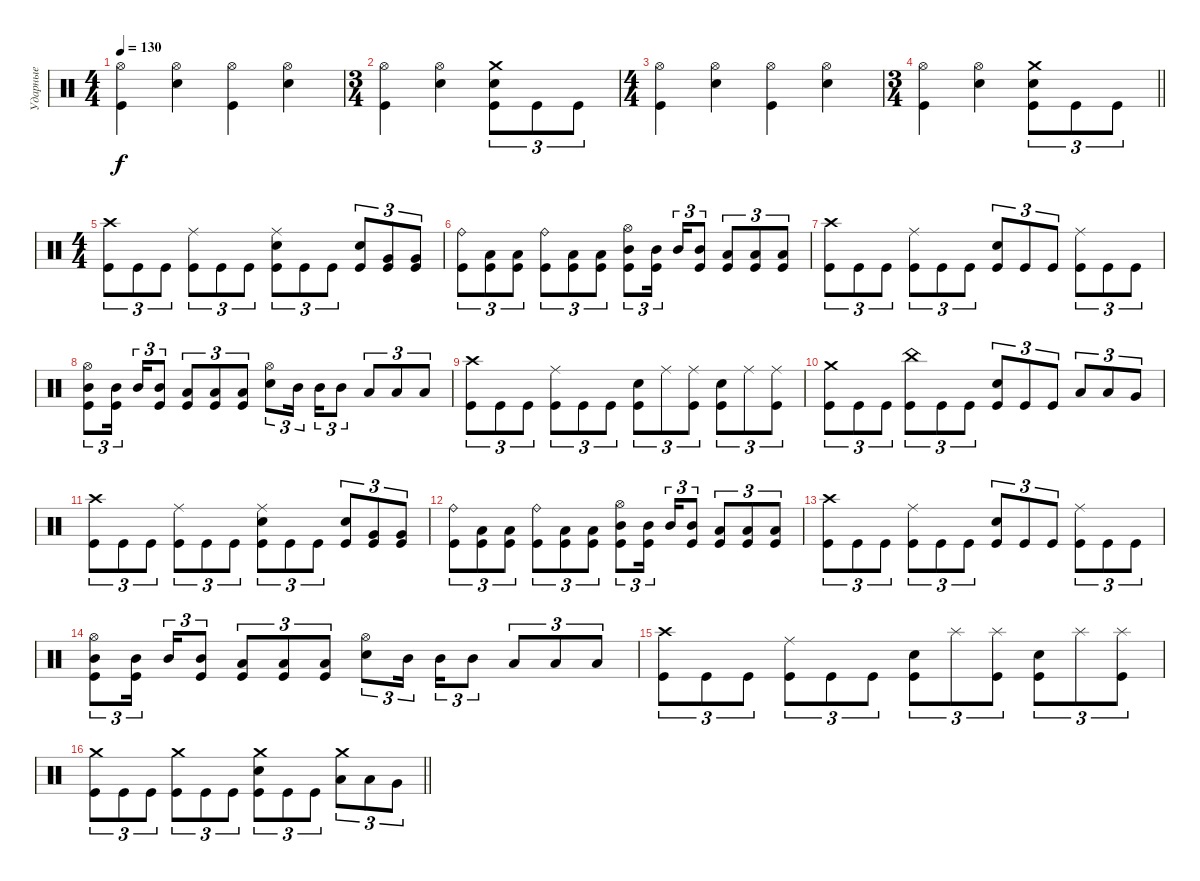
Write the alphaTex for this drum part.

\track ("Ударные" "Ударные") {instrument percussion}
\staff {score}
\articulation defaults
\ts (4 4)
\tempo 130
\clef neutral
\ks c
("Hi-Hat (open)" "Kick (hit)").4{dy f} ("Hi-Hat (open)" "Electric Snare (hit)").4 ("Hi-Hat (open)" "Kick (hit)").4 ("Hi-Hat (open)" "Electric Snare (hit)").4 |
\ts (3 4)
("Hi-Hat (open)" "Kick (hit)").4 ("Hi-Hat (open)" "Electric Snare (hit)").4 ("Crash medium (hit)" "Kick (hit)" "Electric Snare (hit)").8{tu (3 2)} "Kick (hit)".8{tu (3 2)} "Kick (hit)".8{tu (3 2)} |
\ts (4 4)
("Hi-Hat (open)" "Kick (hit)").4 ("Hi-Hat (open)" "Electric Snare (hit)").4 ("Hi-Hat (open)" "Kick (hit)").4 ("Hi-Hat (open)" "Electric Snare (hit)").4 |
\ts (3 4)
\barLineRight lightlight
("Hi-Hat (open)" "Kick (hit)").4 ("Hi-Hat (open)" "Electric Snare (hit)").4 ("Crash medium (hit)" "Kick (hit)" "Electric Snare (hit)").8{tu (3 2)} "Kick (hit)".8{tu (3 2)} "Kick (hit)".8{tu (3 2)} |
\ts (4 4)
("Crash high (hit)" "Kick (hit)").8{tu (3 2)} "Kick (hit)".8{tu (3 2)} "Kick (hit)".8{tu (3 2)} ("Ride (middle)" "Kick (hit)").8{tu (3 2)} "Kick (hit)".8{tu (3 2)} "Kick (hit)".8{tu (3 2)} ("Ride (middle)" "Electric Snare (hit)" "Kick (hit)").8{tu (3 2)} "Kick (hit)".8{tu (3 2)} "Kick (hit)".8{tu (3 2)} ("Electric Snare (hit)" "Kick (hit)").8{tu (3 2)} ("Very Low Tom (hit)" "Kick (hit)").8{tu (3 2)} ("Very Low Tom (hit)" "Kick (hit)").8{tu (3 2)} |
("Ride (bell)" "Kick (hit)").8{tu (3 2)} ("Low Tom (hit)" "Kick (hit)").8{tu (3 2)} ("Low Tom (hit)" "Kick (hit)").8{tu (3 2)} ("Ride (bell)" "Kick (hit)").8{tu (3 2)} ("Low Floor Tom (hit)" "Kick (hit)").8{tu (3 2)} ("Low Floor Tom (hit)" "Kick (hit)").8{tu (3 2)} ("Hi-Hat (open)" "Mid Tom (hit)" "Kick (hit)").8{tu (3 2)} ("Mid Tom (hit)" "Kick (hit)").16{tu (3 2) beam splitsecondary} "Mid Tom (hit)".16{tu (3 2)} ("Mid Tom (hit)" "Kick (hit)").8{tu (3 2)} ("Low Tom (hit)" "Kick (hit)").8{tu (3 2)} ("Low Tom (hit)" "Kick (hit)").8{tu (3 2)} ("Low Tom (hit)" "Kick (hit)").8{tu (3 2)} |
("Crash high (hit)" "Kick (hit)").8{tu (3 2)} "Kick (hit)".8{tu (3 2)} "Kick (hit)".8{tu (3 2)} ("Ride (middle)" "Kick (hit)").8{tu (3 2)} "Kick (hit)".8{tu (3 2)} "Kick (hit)".8{tu (3 2)} ("Electric Snare (hit)" "Kick (hit)").8{tu (3 2)} "Kick (hit)".8{tu (3 2)} "Kick (hit)".8{tu (3 2)} ("Ride (middle)" "Kick (hit)").8{tu (3 2)} "Kick (hit)".8{tu (3 2)} "Kick (hit)".8{tu (3 2)} |
("Hi-Hat (open)" "Mid Tom (hit)" "Kick (hit)").8{tu (3 2)} ("Mid Tom (hit)" "Kick (hit)").16{tu (3 2) beam splitsecondary} "Mid Tom (hit)".16{tu (3 2)} ("Mid Tom (hit)" "Kick (hit)").8{tu (3 2)} ("Low Tom (hit)" "Kick (hit)").8{tu (3 2)} ("Low Tom (hit)" "Kick (hit)").8{tu (3 2)} ("Low Tom (hit)" "Kick (hit)").8{tu (3 2)} ("Hi-Hat (open)" "Electric Snare (hit)").8{tu (3 2)} "Mid Tom (hit)".16{tu (3 2) beam splitsecondary} "Mid Tom (hit)".16{tu (3 2)} "Mid Tom (hit)".8{tu (3 2)} "Low Tom (hit)".8{tu (3 2)} "Low Tom (hit)".8{tu (3 2)} "Low Tom (hit)".8{tu (3 2)} |
("Crash high (hit)" "Kick (hit)").8{tu (3 2)} "Kick (hit)".8{tu (3 2)} "Kick (hit)".8{tu (3 2)} ("Ride (middle)" "Kick (hit)").8{tu (3 2)} "Kick (hit)".8{tu (3 2)} "Kick (hit)".8{tu (3 2)} ("Electric Snare (hit)" "Kick (hit)").8{tu (3 2)} "Ride (middle)".8{tu (3 2)} ("Ride (middle)" "Kick (hit)").8{tu (3 2)} ("Electric Snare (hit)" "Kick (hit)").8{tu (3 2)} "Ride (middle)".8{tu (3 2)} ("Ride (middle)" "Kick (hit)").8{tu (3 2)} |
("Crash medium (hit)" "Kick (hit)").8{tu (3 2)} "Kick (hit)".8{tu (3 2)} "Kick (hit)".8{tu (3 2)} ("China (hit)" "Kick (hit)").8{tu (3 2)} "Kick (hit)".8{tu (3 2)} "Kick (hit)".8{tu (3 2)} ("Electric Snare (hit)" "Kick (hit)").8{tu (3 2)} "Kick (hit)".8{tu (3 2)} "Kick (hit)".8{tu (3 2)} "Low Tom (hit)".8{tu (3 2)} "Low Tom (hit)".8{tu (3 2)} "Very Low Tom (hit)".8{tu (3 2)} |
("Crash high (hit)" "Kick (hit)").8{tu (3 2)} "Kick (hit)".8{tu (3 2)} "Kick (hit)".8{tu (3 2)} ("Ride (middle)" "Kick (hit)").8{tu (3 2)} "Kick (hit)".8{tu (3 2)} "Kick (hit)".8{tu (3 2)} ("Ride (middle)" "Electric Snare (hit)" "Kick (hit)").8{tu (3 2)} "Kick (hit)".8{tu (3 2)} "Kick (hit)".8{tu (3 2)} ("Electric Snare (hit)" "Kick (hit)").8{tu (3 2)} ("Very Low Tom (hit)" "Kick (hit)").8{tu (3 2)} ("Very Low Tom (hit)" "Kick (hit)").8{tu (3 2)} |
("Ride (bell)" "Kick (hit)").8{tu (3 2)} ("Low Tom (hit)" "Kick (hit)").8{tu (3 2)} ("Low Tom (hit)" "Kick (hit)").8{tu (3 2)} ("Ride (bell)" "Kick (hit)").8{tu (3 2)} ("Low Floor Tom (hit)" "Kick (hit)").8{tu (3 2)} ("Low Floor Tom (hit)" "Kick (hit)").8{tu (3 2)} ("Hi-Hat (open)" "Mid Tom (hit)" "Kick (hit)").8{tu (3 2)} ("Mid Tom (hit)" "Kick (hit)").16{tu (3 2) beam splitsecondary} "Mid Tom (hit)".16{tu (3 2)} ("Mid Tom (hit)" "Kick (hit)").8{tu (3 2)} ("Low Tom (hit)" "Kick (hit)").8{tu (3 2)} ("Low Tom (hit)" "Kick (hit)").8{tu (3 2)} ("Low Tom (hit)" "Kick (hit)").8{tu (3 2)} |
("Crash high (hit)" "Kick (hit)").8{tu (3 2)} "Kick (hit)".8{tu (3 2)} "Kick (hit)".8{tu (3 2)} ("Ride (middle)" "Kick (hit)").8{tu (3 2)} "Kick (hit)".8{tu (3 2)} "Kick (hit)".8{tu (3 2)} ("Electric Snare (hit)" "Kick (hit)").8{tu (3 2)} "Kick (hit)".8{tu (3 2)} "Kick (hit)".8{tu (3 2)} ("Ride (middle)" "Kick (hit)").8{tu (3 2)} "Kick (hit)".8{tu (3 2)} "Kick (hit)".8{tu (3 2)} |
("Hi-Hat (open)" "Mid Tom (hit)" "Kick (hit)").8{tu (3 2)} ("Mid Tom (hit)" "Kick (hit)").16{tu (3 2) beam splitsecondary} "Mid Tom (hit)".16{tu (3 2)} ("Mid Tom (hit)" "Kick (hit)").8{tu (3 2)} ("Low Tom (hit)" "Kick (hit)").8{tu (3 2)} ("Low Tom (hit)" "Kick (hit)").8{tu (3 2)} ("Low Tom (hit)" "Kick (hit)").8{tu (3 2)} ("Hi-Hat (open)" "Electric Snare (hit)").8{tu (3 2)} "Mid Tom (hit)".16{tu (3 2) beam splitsecondary} "Mid Tom (hit)".16{tu (3 2)} "Mid Tom (hit)".8{tu (3 2)} "Low Tom (hit)".8{tu (3 2)} "Low Tom (hit)".8{tu (3 2)} "Low Tom (hit)".8{tu (3 2)} |
("Crash high (hit)" "Kick (hit)").8{tu (3 2)} "Kick (hit)".8{tu (3 2)} "Kick (hit)".8{tu (3 2)} ("Ride (middle)" "Kick (hit)").8{tu (3 2)} "Kick (hit)".8{tu (3 2)} "Kick (hit)".8{tu (3 2)} ("Electric Snare (hit)" "Kick (hit)").8{tu (3 2)} "Splash (hit)".8{tu (3 2)} ("Splash (hit)" "Kick (hit)").8{tu (3 2)} ("Electric Snare (hit)" "Kick (hit)").8{tu (3 2)} "Splash (hit)".8{tu (3 2)} ("Splash (hit)" "Kick (hit)").8{tu (3 2)} |
\barLineRight lightlight
("Crash medium (hit)" "Kick (hit)").8{tu (3 2)} "Kick (hit)".8{tu (3 2)} "Kick (hit)".8{tu (3 2)} ("Crash medium (hit)" "Kick (hit)").8{tu (3 2)} "Kick (hit)".8{tu (3 2)} "Kick (hit)".8{tu (3 2)} ("Crash medium (hit)" "Electric Snare (hit)" "Kick (hit)").8{tu (3 2)} "Kick (hit)".8{tu (3 2)} "Kick (hit)".8{tu (3 2)} ("Crash medium (hit)" "Low Tom (hit)").8{tu (3 2)} "Low Tom (hit)".8{tu (3 2)} "Very Low Tom (hit)".8{tu (3 2)}
